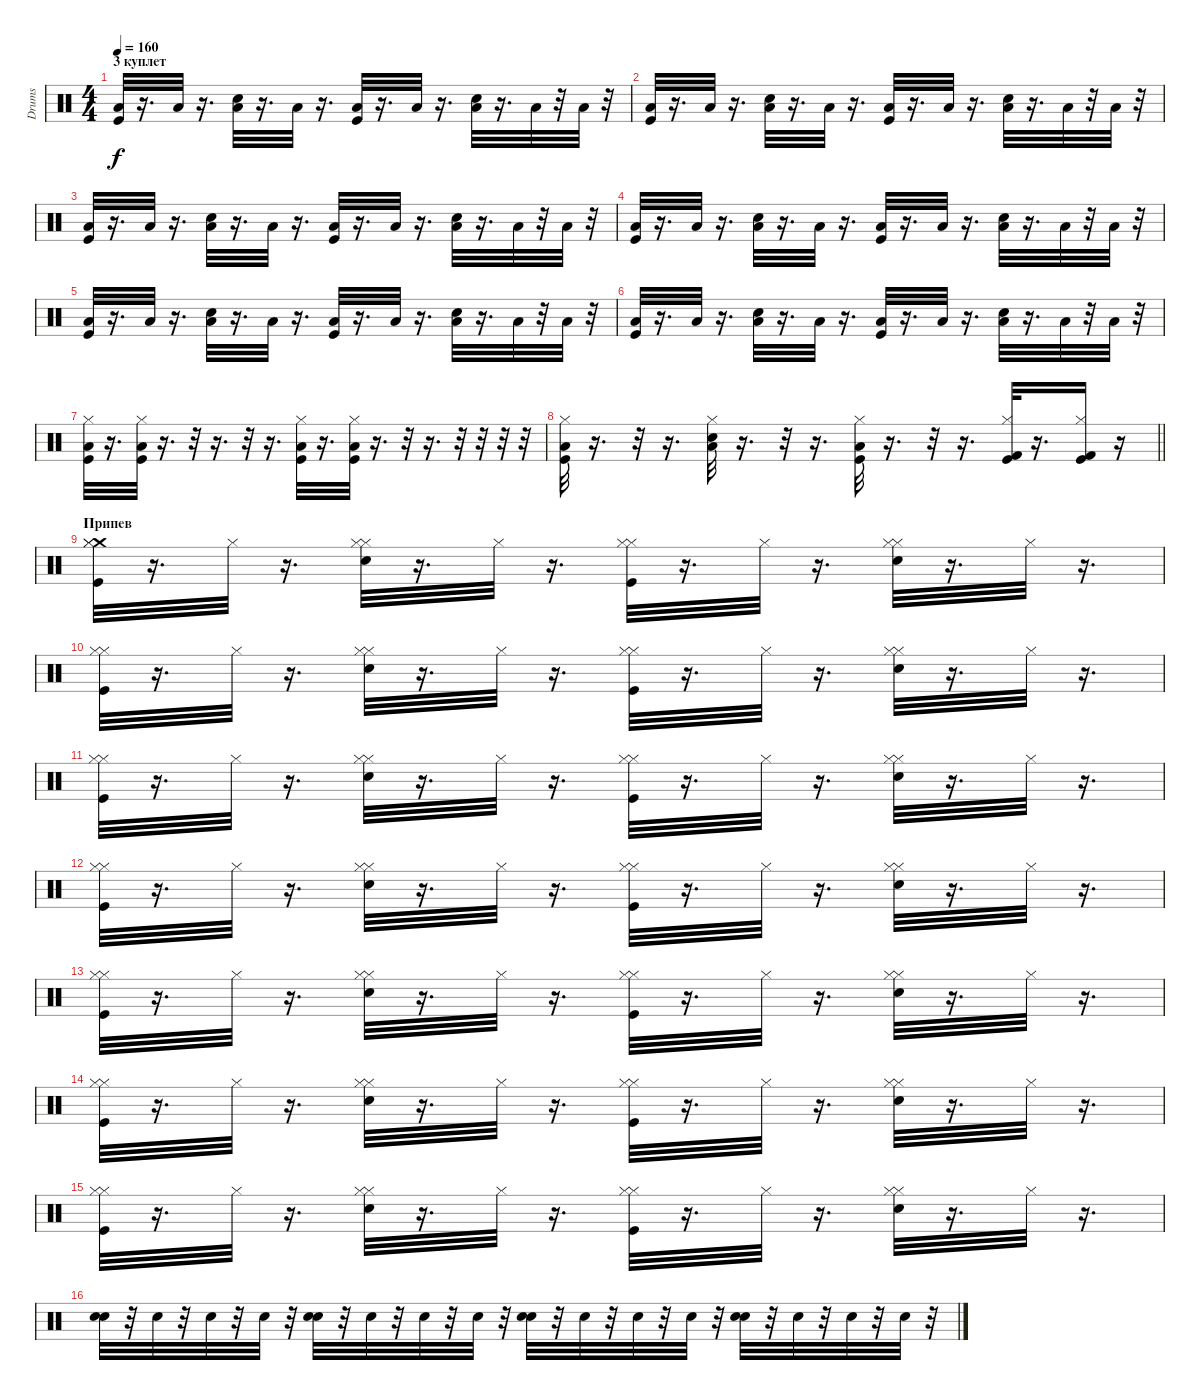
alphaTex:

\track ("Drums" "Drums") {instrument percussion}
\staff {score}
\articulation defaults
\ts (4 4)
\section ("" "3 куплет")
\tempo 160
\clef neutral
\ks c
("Kick (hit)" "Low Floor Tom (hit)").32{dy f} r.16{d} "Low Floor Tom (hit)".32 r.16{d} ("Low Floor Tom (hit)" "Snare (hit) 2").32 r.16{d} "Low Floor Tom (hit)".32 r.16{d} ("Kick (hit)" "Low Floor Tom (hit)").32 r.16{d} "Low Floor Tom (hit)".32 r.16{d} ("Low Floor Tom (hit)" "Snare (hit) 2").32 r.16{d} "Low Floor Tom (hit)".32 r.32 "Low Floor Tom (hit)".32 r.32 |
("Kick (hit)" "Low Floor Tom (hit)").32 r.16{d} "Low Floor Tom (hit)".32 r.16{d} ("Low Floor Tom (hit)" "Snare (hit) 2").32 r.16{d} "Low Floor Tom (hit)".32 r.16{d} ("Low Floor Tom (hit)" "Kick (hit)").32 r.16{d} "Low Floor Tom (hit)".32 r.16{d} ("Snare (hit) 2" "Low Floor Tom (hit)").32 r.16{d} "Low Floor Tom (hit)".32 r.32 "Low Floor Tom (hit)".32 r.32 |
("Kick (hit)" "Low Floor Tom (hit)").32 r.16{d} "Low Floor Tom (hit)".32 r.16{d} ("Low Floor Tom (hit)" "Snare (hit) 2").32 r.16{d} "Low Floor Tom (hit)".32 r.16{d} ("Kick (hit)" "Low Floor Tom (hit)").32 r.16{d} "Low Floor Tom (hit)".32 r.16{d} ("Low Floor Tom (hit)" "Snare (hit) 2").32 r.16{d} "Low Floor Tom (hit)".32 r.32 "Low Floor Tom (hit)".32 r.32 |
("Kick (hit)" "Low Floor Tom (hit)").32 r.16{d} "Low Floor Tom (hit)".32 r.16{d} ("Low Floor Tom (hit)" "Snare (hit) 2").32 r.16{d} "Low Floor Tom (hit)".32 r.16{d} ("Low Floor Tom (hit)" "Kick (hit)").32 r.16{d} "Low Floor Tom (hit)".32 r.16{d} ("Snare (hit) 2" "Low Floor Tom (hit)").32 r.16{d} "Low Floor Tom (hit)".32 r.32 "Low Floor Tom (hit)".32 r.32 |
("Kick (hit)" "Low Floor Tom (hit)").32 r.16{d} "Low Floor Tom (hit)".32 r.16{d} ("Low Floor Tom (hit)" "Snare (hit) 2").32 r.16{d} "Low Floor Tom (hit)".32 r.16{d} ("Kick (hit)" "Low Floor Tom (hit)").32 r.16{d} "Low Floor Tom (hit)".32 r.16{d} ("Low Floor Tom (hit)" "Snare (hit) 2").32 r.16{d} "Low Floor Tom (hit)".32 r.32 "Low Floor Tom (hit)".32 r.32 |
("Kick (hit)" "Low Floor Tom (hit)").32 r.16{d} "Low Floor Tom (hit)".32 r.16{d} ("Low Floor Tom (hit)" "Snare (hit) 2").32 r.16{d} "Low Floor Tom (hit)".32 r.16{d} ("Low Floor Tom (hit)" "Kick (hit)").32 r.16{d} "Low Floor Tom (hit)".32 r.16{d} ("Snare (hit) 2" "Low Floor Tom (hit)").32 r.16{d} "Low Floor Tom (hit)".32 r.32 "Low Floor Tom (hit)".32 r.32 |
("Kick (hit)" "Low Floor Tom (hit)" "Hi-Hat (closed)").32 r.16{d} ("Kick (hit)" "Low Floor Tom (hit)" "Hi-Hat (closed)").32 r.16{d} r.32 r.16{d} r.32 r.16{d} ("Kick (hit)" "Low Floor Tom (hit)" "Hi-Hat (closed)").32 r.16{d} ("Kick (hit)" "Low Floor Tom (hit)" "Hi-Hat (closed)").32 r.16{d} r.32 r.16{d} r.32 r.32 r.32 r.32 |
\barLineRight lightlight
("Kick (hit)" "Low Floor Tom (hit)" "Hi-Hat (closed)").32 r.16{d} r.32 r.16{d} ("Low Floor Tom (hit)" "Snare (hit) 2" "Hi-Hat (closed)").32 r.16{d} r.32 r.16{d} ("Low Floor Tom (hit)" "Kick (hit)" "Hi-Hat (closed)").32 r.16{d} r.32 r.16{d} ("Hi-Hat (closed)" "Kick (hit) 2" "Kick (hit)").32 r.16{d} ("Hi-Hat (closed)" "Kick (hit) 2" "Kick (hit)").16 r.16 |
\section ("" "Припев")
("Crash medium (hit)" "Hi-Hat (closed)" "Hi-Hat (closed)" "Kick (hit)").32 r.16{d} "Hi-Hat (closed)".32 r.16{d} ("Hi-Hat (closed)" "Hi-Hat (closed)" "Snare (hit) 2").32 r.16{d} "Hi-Hat (closed)".32 r.16{d} ("Hi-Hat (closed)" "Hi-Hat (closed)" "Kick (hit)").32 r.16{d} "Hi-Hat (closed)".32 r.16{d} ("Hi-Hat (closed)" "Hi-Hat (closed)" "Snare (hit) 2").32 r.16{d} "Hi-Hat (closed)".32 r.16{d} |
("Hi-Hat (closed)" "Hi-Hat (closed)" "Kick (hit)").32 r.16{d} "Hi-Hat (closed)".32 r.16{d} ("Hi-Hat (closed)" "Hi-Hat (closed)" "Snare (hit) 2").32 r.16{d} "Hi-Hat (closed)".32 r.16{d} ("Hi-Hat (closed)" "Hi-Hat (closed)" "Kick (hit)").32 r.16{d} "Hi-Hat (closed)".32 r.16{d} ("Hi-Hat (closed)" "Hi-Hat (closed)" "Snare (hit) 2").32 r.16{d} "Hi-Hat (closed)".32 r.16{d} |
("Hi-Hat (closed)" "Hi-Hat (closed)" "Kick (hit)").32 r.16{d} "Hi-Hat (closed)".32 r.16{d} ("Hi-Hat (closed)" "Hi-Hat (closed)" "Snare (hit) 2").32 r.16{d} "Hi-Hat (closed)".32 r.16{d} ("Hi-Hat (closed)" "Hi-Hat (closed)" "Kick (hit)").32 r.16{d} "Hi-Hat (closed)".32 r.16{d} ("Hi-Hat (closed)" "Hi-Hat (closed)" "Snare (hit) 2").32 r.16{d} "Hi-Hat (closed)".32 r.16{d} |
("Hi-Hat (closed)" "Hi-Hat (closed)" "Kick (hit)").32 r.16{d} "Hi-Hat (closed)".32 r.16{d} ("Hi-Hat (closed)" "Hi-Hat (closed)" "Snare (hit) 2").32 r.16{d} "Hi-Hat (closed)".32 r.16{d} ("Hi-Hat (closed)" "Hi-Hat (closed)" "Kick (hit)").32 r.16{d} "Hi-Hat (closed)".32 r.16{d} ("Hi-Hat (closed)" "Hi-Hat (closed)" "Snare (hit) 2").32 r.16{d} "Hi-Hat (closed)".32 r.16{d} |
("Hi-Hat (closed)" "Hi-Hat (closed)" "Kick (hit)").32 r.16{d} "Hi-Hat (closed)".32 r.16{d} ("Hi-Hat (closed)" "Hi-Hat (closed)" "Snare (hit) 2").32 r.16{d} "Hi-Hat (closed)".32 r.16{d} ("Hi-Hat (closed)" "Hi-Hat (closed)" "Kick (hit)").32 r.16{d} "Hi-Hat (closed)".32 r.16{d} ("Hi-Hat (closed)" "Hi-Hat (closed)" "Snare (hit) 2").32 r.16{d} "Hi-Hat (closed)".32 r.16{d} |
("Hi-Hat (closed)" "Hi-Hat (closed)" "Kick (hit)").32 r.16{d} "Hi-Hat (closed)".32 r.16{d} ("Hi-Hat (closed)" "Hi-Hat (closed)" "Snare (hit) 2").32 r.16{d} "Hi-Hat (closed)".32 r.16{d} ("Hi-Hat (closed)" "Hi-Hat (closed)" "Kick (hit)").32 r.16{d} "Hi-Hat (closed)".32 r.16{d} ("Hi-Hat (closed)" "Hi-Hat (closed)" "Snare (hit) 2").32 r.16{d} "Hi-Hat (closed)".32 r.16{d} |
("Hi-Hat (closed)" "Hi-Hat (closed)" "Kick (hit)").32 r.16{d} "Hi-Hat (closed)".32 r.16{d} ("Hi-Hat (closed)" "Hi-Hat (closed)" "Snare (hit) 2").32 r.16{d} "Hi-Hat (closed)".32 r.16{d} ("Hi-Hat (closed)" "Hi-Hat (closed)" "Kick (hit)").32 r.16{d} "Hi-Hat (closed)".32 r.16{d} ("Hi-Hat (closed)" "Hi-Hat (closed)" "Snare (hit) 2").32 r.16{d} "Hi-Hat (closed)".32 r.16{d} |
("Snare (hit) 2" "Snare (hit) 2").32 r.32 "Snare (hit) 2".32 r.32 "Snare (hit) 2".32 r.32 "Snare (hit) 2".32 r.32 ("Snare (hit) 2" "Snare (hit) 2").32 r.32 "Snare (hit) 2".32 r.32 "Snare (hit) 2".32 r.32 "Snare (hit) 2".32 r.32 ("Snare (hit) 2" "Snare (hit) 2").32 r.32 "Snare (hit) 2".32 r.32 "Snare (hit) 2".32 r.32 "Snare (hit) 2".32 r.32 ("Snare (hit) 2" "Snare (hit) 2").32 r.32 "Snare (hit) 2".32 r.32 "Snare (hit) 2".32 r.32 "Snare (hit) 2".32 r.32
